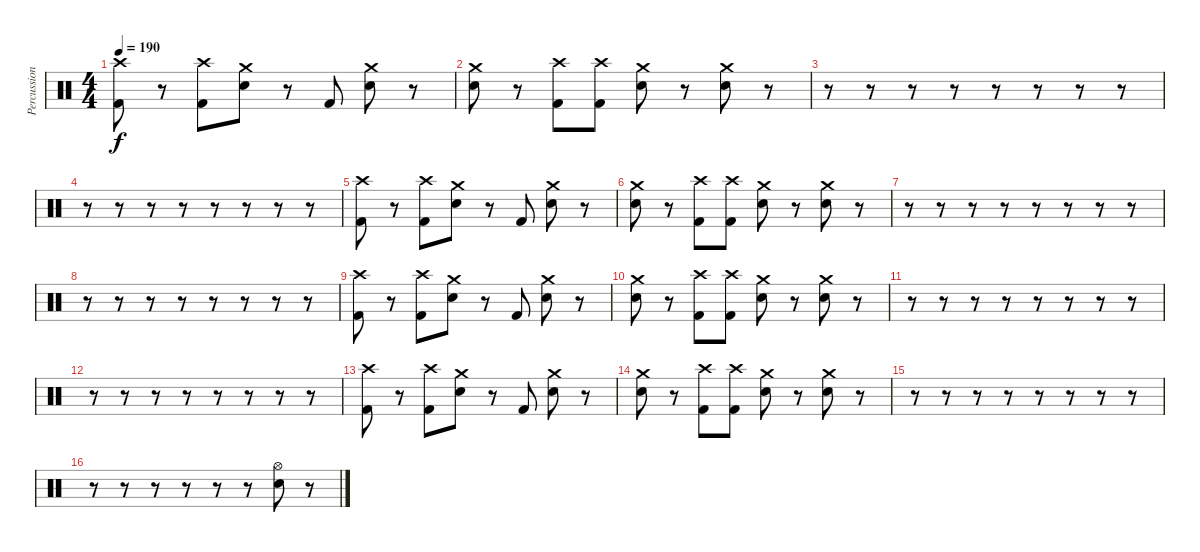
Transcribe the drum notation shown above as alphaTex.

\track ("Percussion" "Percussion") {instrument percussion}
\staff {score}
\articulation defaults
\ts (4 4)
\tempo 190
\clef neutral
\ks c
("Crash high (hit)" "Kick (hit) 2").8{dy f} r.8 ("Crash high (hit)" "Kick (hit) 2").8 ("Crash medium (hit)" "Snare (hit) 2").8 r.8 "Kick (hit) 2".8 ("Crash medium (hit)" "Snare (hit) 2").8 r.8 |
("Crash medium (hit)" "Snare (hit) 2").8 r.8 ("Crash high (hit)" "Kick (hit) 2").8 ("Crash high (hit)" "Kick (hit) 2").8 ("Crash medium (hit)" "Snare (hit) 2").8 r.8 ("Crash medium (hit)" "Snare (hit) 2").8 r.8 |
r.8 r.8 r.8 r.8 r.8 r.8 r.8 r.8 |
r.8 r.8 r.8 r.8 r.8 r.8 r.8 r.8 |
("Crash high (hit)" "Kick (hit) 2").8 r.8 ("Crash high (hit)" "Kick (hit) 2").8 ("Crash medium (hit)" "Snare (hit) 2").8 r.8 "Kick (hit) 2".8 ("Crash medium (hit)" "Snare (hit) 2").8 r.8 |
("Crash medium (hit)" "Snare (hit) 2").8 r.8 ("Crash high (hit)" "Kick (hit) 2").8 ("Crash high (hit)" "Kick (hit) 2").8 ("Crash medium (hit)" "Snare (hit) 2").8 r.8 ("Crash medium (hit)" "Snare (hit) 2").8 r.8 |
r.8 r.8 r.8 r.8 r.8 r.8 r.8 r.8 |
r.8 r.8 r.8 r.8 r.8 r.8 r.8 r.8 |
("Crash high (hit)" "Kick (hit) 2").8 r.8 ("Crash high (hit)" "Kick (hit) 2").8 ("Crash medium (hit)" "Snare (hit) 2").8 r.8 "Kick (hit) 2".8 ("Crash medium (hit)" "Snare (hit) 2").8 r.8 |
("Crash medium (hit)" "Snare (hit) 2").8 r.8 ("Crash high (hit)" "Kick (hit) 2").8 ("Crash high (hit)" "Kick (hit) 2").8 ("Crash medium (hit)" "Snare (hit) 2").8 r.8 ("Crash medium (hit)" "Snare (hit) 2").8 r.8 |
r.8 r.8 r.8 r.8 r.8 r.8 r.8 r.8 |
r.8 r.8 r.8 r.8 r.8 r.8 r.8 r.8 |
("Crash high (hit)" "Kick (hit) 2").8 r.8 ("Crash high (hit)" "Kick (hit) 2").8 ("Crash medium (hit)" "Snare (hit) 2").8 r.8 "Kick (hit) 2".8 ("Crash medium (hit)" "Snare (hit) 2").8 r.8 |
("Crash medium (hit)" "Snare (hit) 2").8 r.8 ("Crash high (hit)" "Kick (hit) 2").8 ("Crash high (hit)" "Kick (hit) 2").8 ("Crash medium (hit)" "Snare (hit) 2").8 r.8 ("Crash medium (hit)" "Snare (hit) 2").8 r.8 |
r.8 r.8 r.8 r.8 r.8 r.8 r.8 r.8 |
r.8 r.8 r.8 r.8 r.8 r.8 ("Hi-Hat (open)" "Snare (hit) 2").8 r.8
